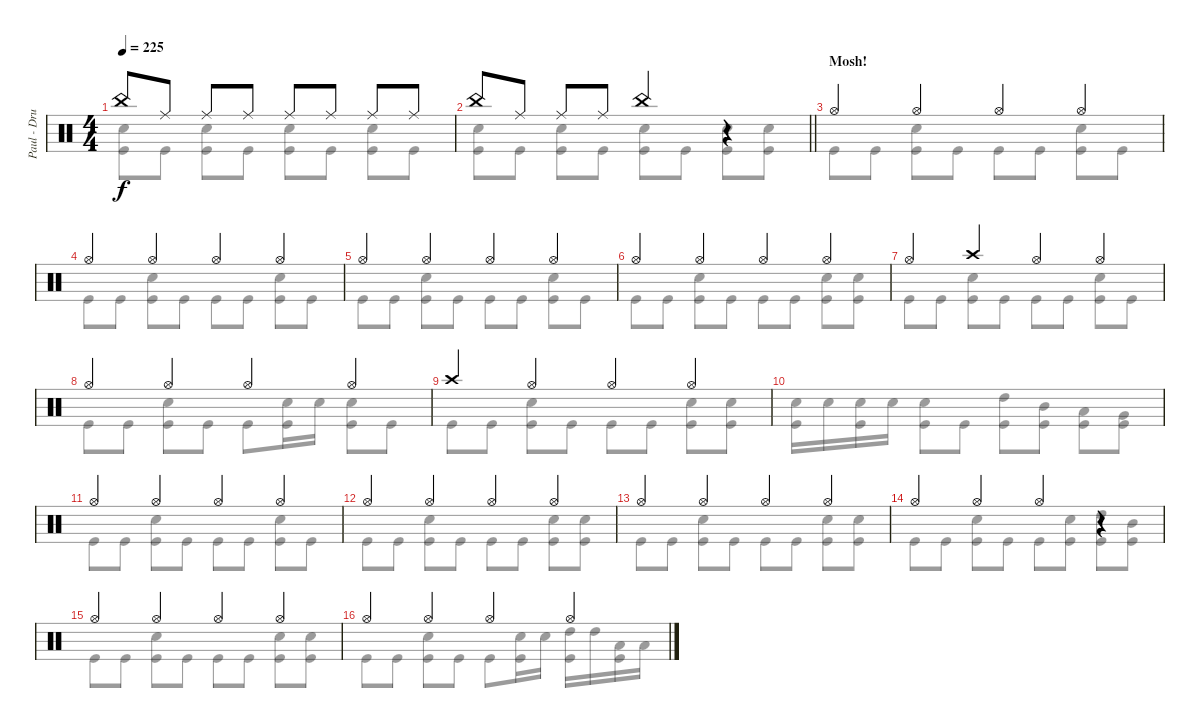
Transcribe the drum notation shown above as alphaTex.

\track ("Paul - Drums" "Paul - Dru") {instrument percussion}
\staff {score}
\articulation defaults
\voice
\ts (4 4)
\tempo 225
\clef neutral
\ks c "China (hit)".8{dy f} "Ride (middle)".8 "Ride (middle)".8 "Ride (middle)".8 "Ride (middle)".8 "Ride (middle)".8 "Ride (middle)".8 "Ride (middle)".8
|
\barLineRight lightlight "China (hit)".8 "Ride (middle)".8 "Ride (middle)".8 "Ride (middle)".8 "China (hit)".4
r.4 |
\section ("" "Mosh!")
"Hi-Hat (open)".4 "Hi-Hat (open)".4 "Hi-Hat (open)".4 "Hi-Hat (open)".4 |
"Hi-Hat (open)".4 "Hi-Hat (open)".4 "Hi-Hat (open)".4 "Hi-Hat (open)".4 |
"Hi-Hat (open)".4 "Hi-Hat (open)".4 "Hi-Hat (open)".4 "Hi-Hat (open)".4 |
"Hi-Hat (open)".4 "Hi-Hat (open)".4 "Hi-Hat (open)".4 "Hi-Hat (open)".4 |
"Hi-Hat (open)".4 "Crash high (hit)".4 "Hi-Hat (open)".4 "Hi-Hat (open)".4 |
"Hi-Hat (open)".4 "Hi-Hat (open)".4 "Hi-Hat (open)".4 "Hi-Hat (open)".4 |
"Crash high (hit)".4 "Hi-Hat (open)".4 "Hi-Hat (open)".4 "Hi-Hat (open)".4 |
|
"Hi-Hat (open)".4 "Hi-Hat (open)".4 "Hi-Hat (open)".4 "Hi-Hat (open)".4 |
"Hi-Hat (open)".4 "Hi-Hat (open)".4 "Hi-Hat (open)".4 "Hi-Hat (open)".4 |
"Hi-Hat (open)".4 "Hi-Hat (open)".4 "Hi-Hat (open)".4 "Hi-Hat (open)".4 |
"Hi-Hat (open)".4 "Hi-Hat (open)".4 "Hi-Hat (open)".4 r.4 |
"Hi-Hat (open)".4 "Hi-Hat (open)".4 "Hi-Hat (open)".4 "Hi-Hat (open)".4 |
"Hi-Hat (open)".4 "Hi-Hat (open)".4 "Hi-Hat (open)".4 "Hi-Hat (open)".4
\voice
\clef neutral
\ottava regular
\simile none
\ks c
("Snare (hit) 2" "Kick (hit)").8{dy f} "Kick (hit)".8 ("Snare (hit) 2" "Kick (hit)").8 "Kick (hit)".8 ("Snare (hit) 2" "Kick (hit)").8 "Kick (hit)".8 ("Snare (hit) 2" "Kick (hit)").8 "Kick (hit)".8 |
\barLineRight lightlight
("Snare (hit) 2" "Kick (hit)").8 "Kick (hit)".8 ("Snare (hit) 2" "Kick (hit)").8 "Kick (hit)".8 ("Snare (hit) 2" "Kick (hit)").8 "Kick (hit)".8 ("Snare (hit) 2" "Kick (hit)").8 ("Snare (hit) 2" "Kick (hit)").8 |
"Kick (hit)".8 "Kick (hit)".8 ("Snare (hit) 2" "Kick (hit)").8 "Kick (hit)".8 "Kick (hit)".8 "Kick (hit)".8 ("Snare (hit) 2" "Kick (hit)").8 "Kick (hit)".8 |
"Kick (hit)".8 "Kick (hit)".8 ("Snare (hit) 2" "Kick (hit)").8 "Kick (hit)".8 "Kick (hit)".8 "Kick (hit)".8 ("Snare (hit) 2" "Kick (hit)").8 "Kick (hit)".8 |
"Kick (hit)".8 "Kick (hit)".8 ("Snare (hit) 2" "Kick (hit)").8 "Kick (hit)".8 "Kick (hit)".8 "Kick (hit)".8 ("Snare (hit) 2" "Kick (hit)").8 "Kick (hit)".8 |
"Kick (hit)".8 "Kick (hit)".8 ("Snare (hit) 2" "Kick (hit)").8 "Kick (hit)".8 "Kick (hit)".8 "Kick (hit)".8 ("Snare (hit) 2" "Kick (hit)").8 ("Snare (hit) 2" "Kick (hit)").8 |
"Kick (hit)".8 "Kick (hit)".8 ("Snare (hit) 2" "Kick (hit)").8 "Kick (hit)".8 "Kick (hit)".8 "Kick (hit)".8 ("Snare (hit) 2" "Kick (hit)").8 "Kick (hit)".8 |
"Kick (hit)".8 "Kick (hit)".8 ("Snare (hit) 2" "Kick (hit)").8 "Kick (hit)".8 "Kick (hit)".8 ("Snare (hit) 2" "Kick (hit)").16 "Snare (hit) 2".16 ("Snare (hit) 2" "Kick (hit)").8 "Kick (hit)".8 |
"Kick (hit)".8 "Kick (hit)".8 ("Snare (hit) 2" "Kick (hit)").8 "Kick (hit)".8 "Kick (hit)".8 "Kick (hit)".8 ("Snare (hit) 2" "Kick (hit)").8 ("Snare (hit) 2" "Kick (hit)").8 |
("Snare (hit) 2" "Kick (hit)").16 "Snare (hit) 2".16 ("Snare (hit) 2" "Kick (hit)").16 "Snare (hit) 2".16 ("Snare (hit) 2" "Kick (hit)").8 "Kick (hit)".8 ("High Tom (hit)" "Kick (hit)").8 ("Mid Tom (hit)" "Kick (hit)").8 ("Low Tom (hit)" "Kick (hit)").8 ("Very Low Tom (hit)" "Kick (hit)").8 |
"Kick (hit)".8 "Kick (hit)".8 ("Snare (hit) 2" "Kick (hit)").8 "Kick (hit)".8 "Kick (hit)".8 "Kick (hit)".8 ("Snare (hit) 2" "Kick (hit)").8 "Kick (hit)".8 |
"Kick (hit)".8 "Kick (hit)".8 ("Snare (hit) 2" "Kick (hit)").8 "Kick (hit)".8 "Kick (hit)".8 "Kick (hit)".8 ("Snare (hit) 2" "Kick (hit)").8 ("Snare (hit) 2" "Kick (hit)").8 |
"Kick (hit)".8 "Kick (hit)".8 ("Snare (hit) 2" "Kick (hit)").8 "Kick (hit)".8 "Kick (hit)".8 "Kick (hit)".8 ("Snare (hit) 2" "Kick (hit)").8 ("Snare (hit) 2" "Kick (hit)").8 |
"Kick (hit)".8 "Kick (hit)".8 ("Snare (hit) 2" "Kick (hit)").8 "Kick (hit)".8 "Kick (hit)".8 ("Snare (hit) 2" "Kick (hit)").8 ("High Tom (hit)" "Kick (hit)").8 ("Mid Tom (hit)" "Kick (hit)").8 |
"Kick (hit)".8 "Kick (hit)".8 ("Snare (hit) 2" "Kick (hit)").8 "Kick (hit)".8 "Kick (hit)".8 "Kick (hit)".8 ("Snare (hit) 2" "Kick (hit)").8 ("Snare (hit) 2" "Kick (hit)").8 |
"Kick (hit)".8 "Kick (hit)".8 ("Snare (hit) 2" "Kick (hit)").8 "Kick (hit)".8 "Kick (hit)".8 ("Snare (hit) 2" "Kick (hit)").16 "Snare (hit) 2".16 ("High Tom (hit)" "Kick (hit)").16 "High Tom (hit)".16 ("Low Tom (hit)" "Kick (hit)").16 "Low Tom (hit)".16
